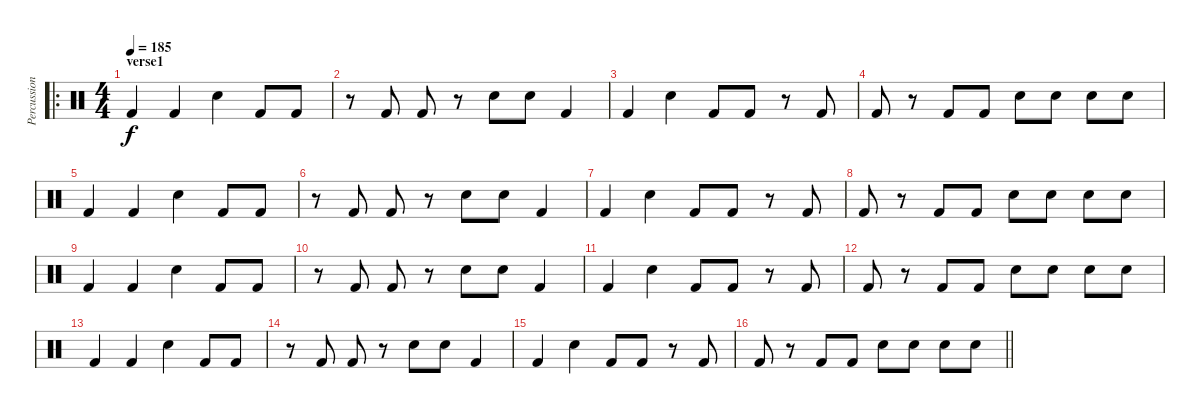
\track ("Percussion" "Percussion") {instrument percussion}
\staff {score}
\articulation defaults
\ro
\ts (4 4)
\section ("" "verse1")
\tempo 185
\clef neutral
\ks c "Kick (hit) 2".4{dy f} "Kick (hit) 2".4 "Snare (hit) 2".4 "Kick (hit) 2".8 "Kick (hit) 2".8
|
r.8 "Kick (hit) 2".8 "Kick (hit) 2".8 r.8 "Snare (hit) 2".8 "Snare (hit) 2".8 "Kick (hit) 2".4 |
"Kick (hit) 2".4 "Snare (hit) 2".4 "Kick (hit) 2".8 "Kick (hit) 2".8 r.8 "Kick (hit) 2".8 |
"Kick (hit) 2".8 r.8 "Kick (hit) 2".8 "Kick (hit) 2".8 "Snare (hit) 2".8 "Snare (hit) 2".8 "Snare (hit) 2".8 "Snare (hit) 2".8 |
"Kick (hit) 2".4 "Kick (hit) 2".4 "Snare (hit) 2".4 "Kick (hit) 2".8 "Kick (hit) 2".8 |
r.8 "Kick (hit) 2".8 "Kick (hit) 2".8 r.8 "Snare (hit) 2".8 "Snare (hit) 2".8 "Kick (hit) 2".4 |
"Kick (hit) 2".4 "Snare (hit) 2".4 "Kick (hit) 2".8 "Kick (hit) 2".8 r.8 "Kick (hit) 2".8 |
"Kick (hit) 2".8 r.8 "Kick (hit) 2".8 "Kick (hit) 2".8 "Snare (hit) 2".8 "Snare (hit) 2".8 "Snare (hit) 2".8 "Snare (hit) 2".8 |
"Kick (hit) 2".4 "Kick (hit) 2".4 "Snare (hit) 2".4 "Kick (hit) 2".8 "Kick (hit) 2".8 |
r.8 "Kick (hit) 2".8 "Kick (hit) 2".8 r.8 "Snare (hit) 2".8 "Snare (hit) 2".8 "Kick (hit) 2".4 |
"Kick (hit) 2".4 "Snare (hit) 2".4 "Kick (hit) 2".8 "Kick (hit) 2".8 r.8 "Kick (hit) 2".8 |
"Kick (hit) 2".8 r.8 "Kick (hit) 2".8 "Kick (hit) 2".8 "Snare (hit) 2".8 "Snare (hit) 2".8 "Snare (hit) 2".8 "Snare (hit) 2".8 |
"Kick (hit) 2".4 "Kick (hit) 2".4 "Snare (hit) 2".4 "Kick (hit) 2".8 "Kick (hit) 2".8 |
r.8 "Kick (hit) 2".8 "Kick (hit) 2".8 r.8 "Snare (hit) 2".8 "Snare (hit) 2".8 "Kick (hit) 2".4 |
"Kick (hit) 2".4 "Snare (hit) 2".4 "Kick (hit) 2".8 "Kick (hit) 2".8 r.8 "Kick (hit) 2".8 |
\barLineRight lightlight "Kick (hit) 2".8
r.8 "Kick (hit) 2".8 "Kick (hit) 2".8 "Snare (hit) 2".8 "Snare (hit) 2".8 "Snare (hit) 2".8 "Snare (hit) 2".8
